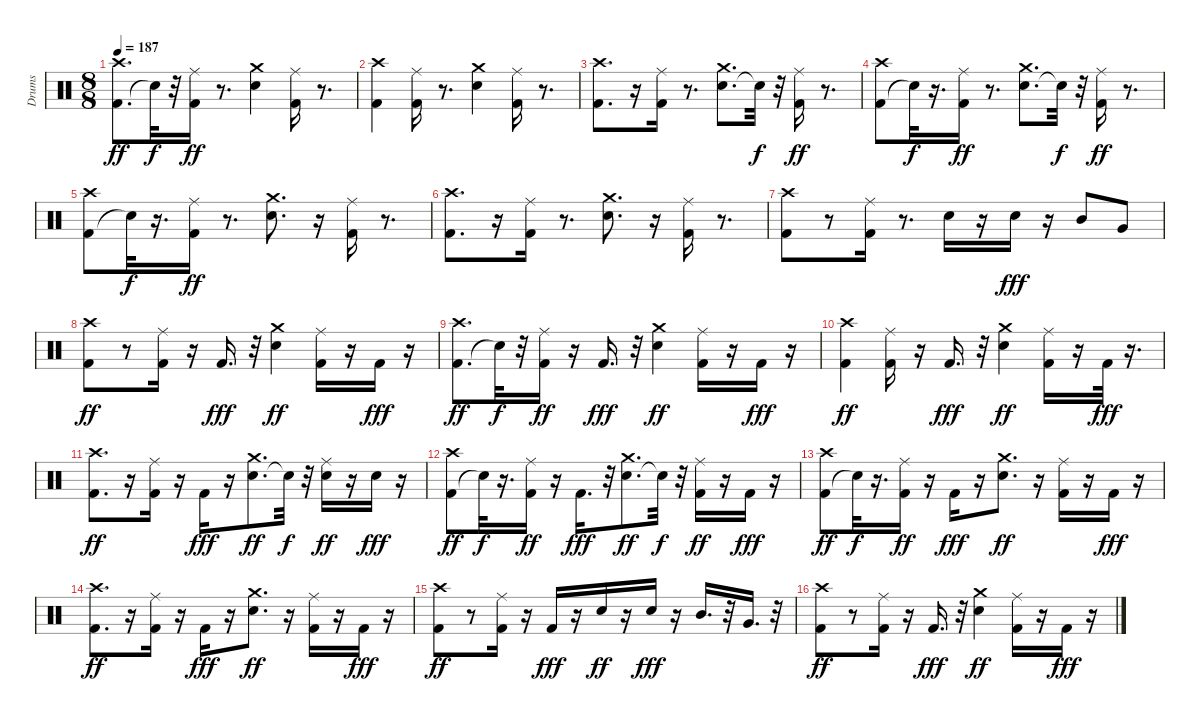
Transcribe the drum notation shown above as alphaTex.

\track ("Drums" "Drums") {instrument percussion}
\staff {score}
\articulation defaults
\ts (8 8)
\tempo 187
\clef neutral
\ks c
("Kick (hit) 2" "Crash high (hit)").8{d dy ff} "Snare (hit)"{t}.32{dy f} r.32 ("Kick (hit) 2" "Ride (middle)").16{dy ff} r.8{d} ("Snare (hit) 2" "Crash medium (hit)").4 ("Kick (hit) 2" "Ride (middle)").16 r.8{d} |
("Kick (hit) 2" "Crash high (hit)").4 ("Kick (hit) 2" "Ride (middle)").16 r.8{d} ("Snare (hit) 2" "Crash medium (hit)").4 ("Kick (hit) 2" "Ride (middle)").16 r.8{d} |
("Kick (hit) 2" "Crash high (hit)").8{d} r.16 ("Kick (hit) 2" "Ride (middle)").16 r.8{d} ("Snare (hit) 2" "Crash medium (hit)").8{d} "Snare (hit)"{t}.32{dy f} r.32 ("Kick (hit) 2" "Ride (middle)").16{dy ff} r.8{d} |
("Kick (hit) 2" "Crash high (hit)").8 "Snare (hit)"{t}.32{dy f} r.16{d} ("Kick (hit) 2" "Ride (middle)").16{dy ff} r.8{d} ("Snare (hit) 2" "Crash medium (hit)").8{d} "Snare (hit)"{t}.32{dy f} r.32 ("Kick (hit) 2" "Ride (middle)").16{dy ff} r.8{d} |
("Kick (hit) 2" "Crash high (hit)").8 "Snare (hit)"{t}.32{dy f} r.16{d} ("Kick (hit) 2" "Ride (middle)").16{dy ff} r.8{d} ("Snare (hit) 2" "Crash medium (hit)").8{d} r.16 ("Kick (hit) 2" "Ride (middle)").16 r.8{d} |
("Kick (hit) 2" "Crash high (hit)").8{d} r.16 ("Kick (hit) 2" "Ride (middle)").16 r.8{d} ("Snare (hit) 2" "Crash medium (hit)").8{d} r.16 ("Kick (hit) 2" "Ride (middle)").16 r.8{d} |
("Kick (hit) 2" "Crash high (hit)").8 r.8 ("Kick (hit) 2" "Ride (middle)").16 r.8{d} "Snare (hit) 2".16 r.16 "Snare (hit) 2".16{dy fff} r.16 "Mid Tom (hit)".8 "Very Low Tom (hit)".8 |
("Kick (hit) 2" "Crash high (hit)").8{dy ff} r.8 ("Kick (hit) 2" "Ride (middle)").16 r.16 "Kick (hit) 2".16{d dy fff} r.32 ("Snare (hit) 2" "Crash medium (hit)").4{dy ff} ("Kick (hit) 2" "Ride (middle)").16 r.16 "Kick (hit) 2".16{dy fff} r.16 |
("Kick (hit) 2" "Crash high (hit)").8{d dy ff} "Snare (hit)"{t}.32{dy f} r.32 ("Kick (hit) 2" "Ride (middle)").16{dy ff} r.16 "Kick (hit) 2".16{d dy fff} r.32 ("Snare (hit) 2" "Crash medium (hit)").4{dy ff} ("Kick (hit) 2" "Ride (middle)").16 r.16 "Kick (hit) 2".16{dy fff} r.16 |
("Kick (hit) 2" "Crash high (hit)").4{dy ff} ("Kick (hit) 2" "Ride (middle)").16 r.16 "Kick (hit) 2".16{d dy fff} r.32 ("Snare (hit) 2" "Crash medium (hit)").4{dy ff} ("Kick (hit) 2" "Ride (middle)").16 r.16 "Kick (hit) 2".32{dy fff} r.16{d} |
("Kick (hit) 2" "Crash high (hit)").8{d dy ff} r.16 ("Kick (hit) 2" "Ride (middle)").16 r.16 "Kick (hit) 2".16{dy fff} r.16 ("Snare (hit) 2" "Crash medium (hit)").8{d dy ff} "Snare (hit)"{t}.32{dy f} r.32 ("Snare (hit) 2" "Ride (middle)").16{dy ff} r.16 "Snare (hit) 2".16{dy fff} r.16 |
("Kick (hit) 2" "Crash high (hit)").8{dy ff} "Snare (hit)"{t}.32{dy f} r.16{d} ("Kick (hit) 2" "Ride (middle)").16{dy ff} r.16 "Kick (hit) 2".16{d dy fff} r.32 ("Snare (hit) 2" "Crash medium (hit)").8{d dy ff} "Snare (hit)"{t}.32{dy f} r.32 ("Kick (hit) 2" "Ride (middle)").16{dy ff} r.16 "Kick (hit) 2".16{dy fff} r.16 |
("Kick (hit) 2" "Crash high (hit)").8{dy ff} "Snare (hit)"{t}.32{dy f} r.16{d} ("Kick (hit) 2" "Ride (middle)").16{dy ff} r.16 "Kick (hit) 2".16{dy fff} r.16 ("Snare (hit) 2" "Crash medium (hit)").8{d dy ff} r.16 ("Kick (hit) 2" "Ride (middle)").16 r.16 "Kick (hit) 2".16{dy fff} r.16 |
("Kick (hit) 2" "Crash high (hit)").8{d dy ff} r.16 ("Kick (hit) 2" "Ride (middle)").16 r.16 "Kick (hit) 2".16{dy fff} r.16 ("Snare (hit) 2" "Crash medium (hit)").8{d dy ff} r.16 ("Kick (hit) 2" "Ride (middle)").16 r.16 "Kick (hit) 2".16{dy fff} r.16 |
("Kick (hit) 2" "Crash high (hit)").8{dy ff} r.8 ("Kick (hit) 2" "Ride (middle)").16 r.16 "Kick (hit) 2".16{dy fff} r.16 "Snare (hit) 2".16{dy ff} r.16 "Snare (hit) 2".16{dy fff} r.16 "Mid Tom (hit)".16{d} r.32 "Very Low Tom (hit)".16{d} r.32 |
("Kick (hit) 2" "Crash high (hit)").8{dy ff} r.8 ("Kick (hit) 2" "Ride (middle)").16 r.16 "Kick (hit) 2".16{d dy fff} r.32 ("Snare (hit) 2" "Crash medium (hit)").4{dy ff} ("Kick (hit) 2" "Ride (middle)").16 r.16 "Kick (hit) 2".16{dy fff} r.16
